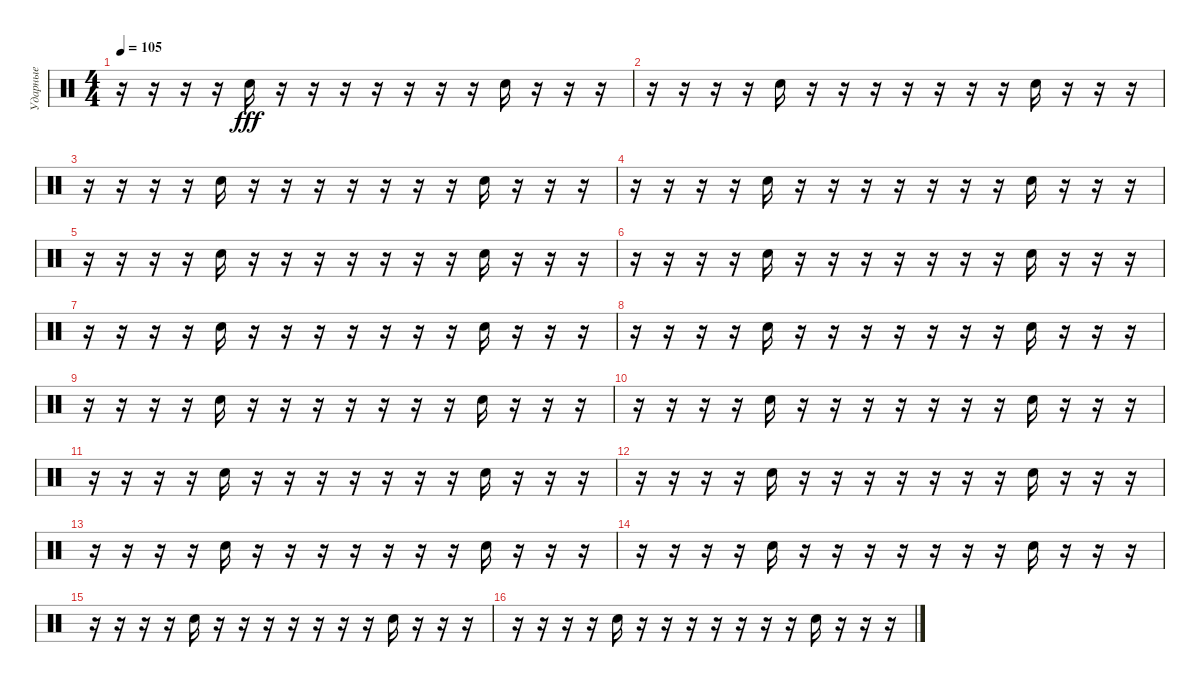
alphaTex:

\track ("Ударные" "Ударные") {instrument percussion}
\staff {score}
\articulation defaults
\ts (4 4)
\tempo 105
\clef neutral
\ks c
r.16{dy fff} r.16 r.16 r.16 "Hand Clap (hit)".16 r.16 r.16 r.16 r.16 r.16 r.16 r.16 "Hand Clap (hit)".16 r.16 r.16 r.16 |
r.16 r.16 r.16 r.16 "Hand Clap (hit)".16 r.16 r.16 r.16 r.16 r.16 r.16 r.16 "Hand Clap (hit)".16 r.16 r.16 r.16 |
r.16 r.16 r.16 r.16 "Hand Clap (hit)".16 r.16 r.16 r.16 r.16 r.16 r.16 r.16 "Hand Clap (hit)".16 r.16 r.16 r.16 |
r.16 r.16 r.16 r.16 "Hand Clap (hit)".16 r.16 r.16 r.16 r.16 r.16 r.16 r.16 "Hand Clap (hit)".16 r.16 r.16 r.16 |
r.16 r.16 r.16 r.16 "Hand Clap (hit)".16 r.16 r.16 r.16 r.16 r.16 r.16 r.16 "Hand Clap (hit)".16 r.16 r.16 r.16 |
r.16 r.16 r.16 r.16 "Hand Clap (hit)".16 r.16 r.16 r.16 r.16 r.16 r.16 r.16 "Hand Clap (hit)".16 r.16 r.16 r.16 |
r.16 r.16 r.16 r.16 "Hand Clap (hit)".16 r.16 r.16 r.16 r.16 r.16 r.16 r.16 "Hand Clap (hit)".16 r.16 r.16 r.16 |
r.16 r.16 r.16 r.16 "Hand Clap (hit)".16 r.16 r.16 r.16 r.16 r.16 r.16 r.16 "Hand Clap (hit)".16 r.16 r.16 r.16 |
r.16 r.16 r.16 r.16 "Hand Clap (hit)".16 r.16 r.16 r.16 r.16 r.16 r.16 r.16 "Hand Clap (hit)".16 r.16 r.16 r.16 |
r.16 r.16 r.16 r.16 "Hand Clap (hit)".16 r.16 r.16 r.16 r.16 r.16 r.16 r.16 "Hand Clap (hit)".16 r.16 r.16 r.16 |
r.16 r.16 r.16 r.16 "Hand Clap (hit)".16 r.16 r.16 r.16 r.16 r.16 r.16 r.16 "Hand Clap (hit)".16 r.16 r.16 r.16 |
r.16 r.16 r.16 r.16 "Hand Clap (hit)".16 r.16 r.16 r.16 r.16 r.16 r.16 r.16 "Hand Clap (hit)".16 r.16 r.16 r.16 |
r.16 r.16 r.16 r.16 "Hand Clap (hit)".16 r.16 r.16 r.16 r.16 r.16 r.16 r.16 "Hand Clap (hit)".16 r.16 r.16 r.16 |
r.16 r.16 r.16 r.16 "Hand Clap (hit)".16 r.16 r.16 r.16 r.16 r.16 r.16 r.16 "Hand Clap (hit)".16 r.16 r.16 r.16 |
r.16 r.16 r.16 r.16 "Hand Clap (hit)".16 r.16 r.16 r.16 r.16 r.16 r.16 r.16 "Hand Clap (hit)".16 r.16 r.16 r.16 |
r.16 r.16 r.16 r.16 "Hand Clap (hit)".16 r.16 r.16 r.16 r.16 r.16 r.16 r.16 "Hand Clap (hit)".16 r.16 r.16 r.16
